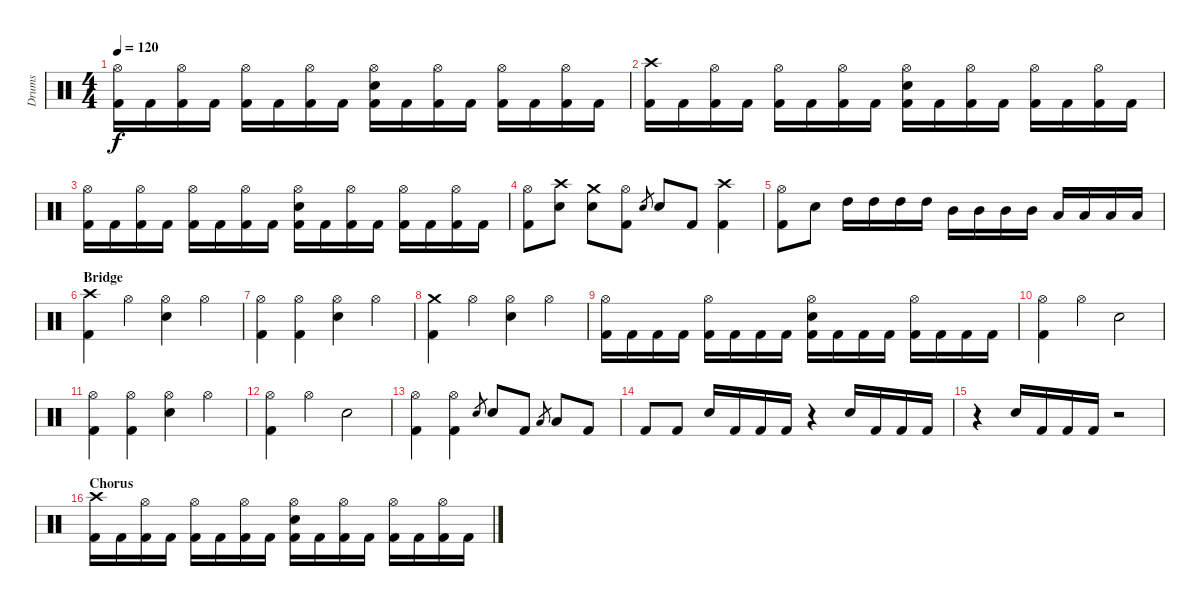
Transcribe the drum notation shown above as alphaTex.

\track ("Drums" "Drums") {instrument percussion}
\staff {score}
\articulation defaults
\ts (4 4)
\tempo 120
\clef neutral
\ks c
("Hi-Hat (open)" "Kick (hit) 2").16{dy f} "Kick (hit) 2".16 ("Hi-Hat (open)" "Kick (hit) 2").16 "Kick (hit) 2".16 ("Hi-Hat (open)" "Kick (hit) 2").16 "Kick (hit) 2".16 ("Hi-Hat (open)" "Kick (hit) 2").16 "Kick (hit) 2".16 ("Hi-Hat (open)" "Electric Snare (hit)" "Kick (hit) 2").16 "Kick (hit) 2".16 ("Hi-Hat (open)" "Kick (hit) 2").16 "Kick (hit) 2".16 ("Hi-Hat (open)" "Kick (hit) 2").16 "Kick (hit) 2".16 ("Hi-Hat (open)" "Kick (hit) 2").16 "Kick (hit) 2".16 |
("Crash high (hit)" "Kick (hit) 2").16 "Kick (hit) 2".16 ("Hi-Hat (open)" "Kick (hit) 2").16 "Kick (hit) 2".16 ("Hi-Hat (open)" "Kick (hit) 2").16 "Kick (hit) 2".16 ("Hi-Hat (open)" "Kick (hit) 2").16 "Kick (hit) 2".16 ("Hi-Hat (open)" "Electric Snare (hit)" "Kick (hit) 2").16 "Kick (hit) 2".16 ("Hi-Hat (open)" "Kick (hit) 2").16 "Kick (hit) 2".16 ("Hi-Hat (open)" "Kick (hit) 2").16 "Kick (hit) 2".16 ("Hi-Hat (open)" "Kick (hit) 2").16 "Kick (hit) 2".16 |
("Hi-Hat (open)" "Kick (hit) 2").16 "Kick (hit) 2".16 ("Hi-Hat (open)" "Kick (hit) 2").16 "Kick (hit) 2".16 ("Hi-Hat (open)" "Kick (hit) 2").16 "Kick (hit) 2".16 ("Hi-Hat (open)" "Kick (hit) 2").16 "Kick (hit) 2".16 ("Hi-Hat (open)" "Electric Snare (hit)" "Kick (hit) 2").16 "Kick (hit) 2".16 ("Hi-Hat (open)" "Kick (hit) 2").16 "Kick (hit) 2".16 ("Hi-Hat (open)" "Kick (hit) 2").16 "Kick (hit) 2".16 ("Hi-Hat (open)" "Kick (hit) 2").16 "Kick (hit) 2".16 |
\section ("" "")
("Hi-Hat (open)" "Kick (hit) 2").8 ("Crash high (hit)" "Electric Snare (hit)").8 ("Crash medium (hit)" "Electric Snare (hit)").8 ("Hi-Hat (open)" "Kick (hit) 2").8 "Electric Snare (hit)".8{gr} "Electric Snare (hit)".8 "Kick (hit) 2".8 ("Crash high (hit)" "Kick (hit) 2").4 |
("Hi-Hat (open)" "Kick (hit) 2").8 "Electric Snare (hit)".8 "High Tom (hit)".16 "High Tom (hit)".16 "High Tom (hit)".16 "High Tom (hit)".16 "Mid Tom (hit)".16 "Mid Tom (hit)".16 "Mid Tom (hit)".16 "Mid Tom (hit)".16 "Low Tom (hit)".16 "Low Tom (hit)".16 "Low Tom (hit)".16 "Low Tom (hit)".16 |
\section ("" "Bridge")
("Crash high (hit)" "Kick (hit) 2").4 "Hi-Hat (open)".4 ("Hi-Hat (open)" "Electric Snare (hit)").4 "Hi-Hat (open)".4 |
("Hi-Hat (open)" "Kick (hit) 2").4 ("Hi-Hat (open)" "Kick (hit) 2").4 ("Hi-Hat (open)" "Electric Snare (hit)").4 "Hi-Hat (open)".4 |
("Crash medium (hit)" "Kick (hit) 2").4 "Hi-Hat (open)".4 ("Hi-Hat (open)" "Electric Snare (hit)").4 "Hi-Hat (open)".4 |
("Hi-Hat (open)" "Kick (hit) 2").16 "Kick (hit) 2".16 "Kick (hit) 2".16 "Kick (hit) 2".16 ("Hi-Hat (open)" "Kick (hit) 2").16 "Kick (hit) 2".16 "Kick (hit) 2".16 "Kick (hit) 2".16 ("Hi-Hat (open)" "Electric Snare (hit)" "Kick (hit) 2").16 "Kick (hit) 2".16 "Kick (hit) 2".16 "Kick (hit) 2".16 ("Hi-Hat (open)" "Kick (hit) 2").16 "Kick (hit) 2".16 "Kick (hit) 2".16 "Kick (hit) 2".16 |
("Hi-Hat (open)" "Kick (hit) 2").4 "Hi-Hat (open)".4 "Electric Snare (hit)".2 |
("Hi-Hat (open)" "Kick (hit) 2").4 ("Hi-Hat (open)" "Kick (hit) 2").4 ("Hi-Hat (open)" "Electric Snare (hit)").4 "Hi-Hat (open)".4 |
("Hi-Hat (open)" "Kick (hit) 2").4 "Hi-Hat (open)".4 "Electric Snare (hit)".2 |
("Hi-Hat (open)" "Kick (hit) 2").4 ("Hi-Hat (open)" "Kick (hit) 2").4 "Electric Snare (hit)".8{gr} "Electric Snare (hit)".8 "Kick (hit) 2".8 "Low Tom (hit)".8{gr} "Low Tom (hit)".8 "Kick (hit) 2".8 |
"Kick (hit) 2".8 "Kick (hit) 2".8 "Electric Snare (hit)".16 "Kick (hit) 2".16 "Kick (hit) 2".16 "Kick (hit) 2".16 r.4 "Electric Snare (hit)".16 "Kick (hit) 2".16 "Kick (hit) 2".16 "Kick (hit) 2".16 |
r.4 "Electric Snare (hit)".16 "Kick (hit) 2".16 "Kick (hit) 2".16 "Kick (hit) 2".16 r.2 |
\section ("" "Chorus")
("Crash high (hit)" "Kick (hit) 2").16 "Kick (hit) 2".16 ("Hi-Hat (open)" "Kick (hit) 2").16 "Kick (hit) 2".16 ("Hi-Hat (open)" "Kick (hit) 2").16 "Kick (hit) 2".16 ("Hi-Hat (open)" "Kick (hit) 2").16 "Kick (hit) 2".16 ("Hi-Hat (open)" "Electric Snare (hit)" "Kick (hit) 2").16 "Kick (hit) 2".16 ("Hi-Hat (open)" "Kick (hit) 2").16 "Kick (hit) 2".16 ("Hi-Hat (open)" "Kick (hit) 2").16 "Kick (hit) 2".16 ("Hi-Hat (open)" "Kick (hit) 2").16 "Kick (hit) 2".16
